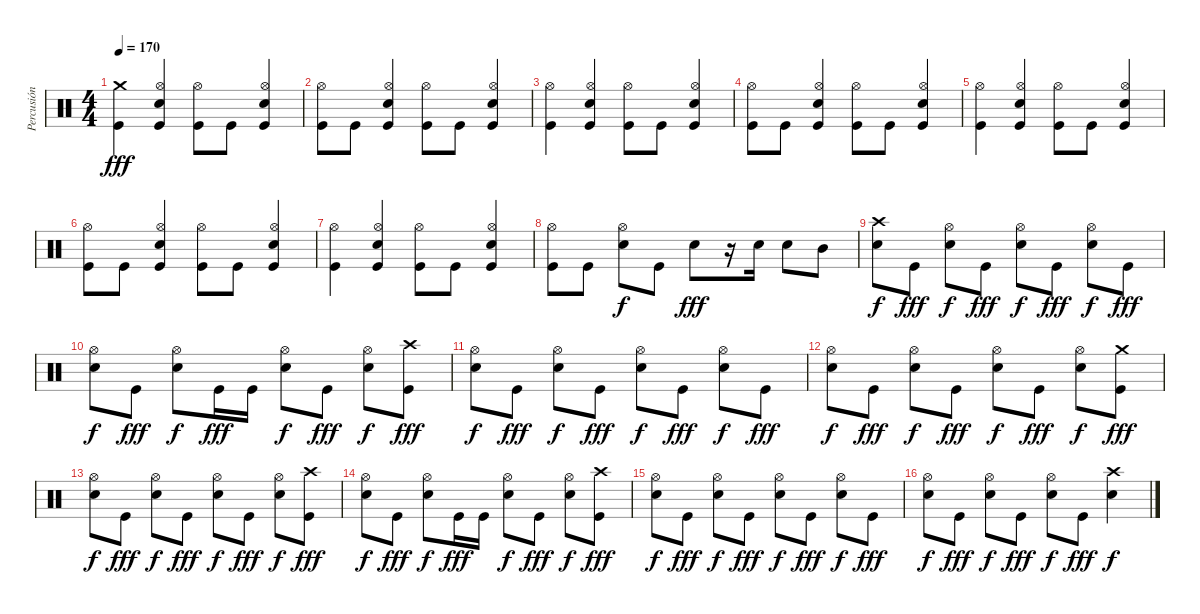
\track ("Percusión" "Percusión") {instrument percussion}
\staff {score}
\articulation defaults
\ts (4 4)
\tempo 170
\clef neutral
\ks c
("Crash medium (hit)" "Kick (hit)").4{dy fff} ("Hi-Hat (open)" "Electric Snare (hit)" "Kick (hit)").4 ("Hi-Hat (open)" "Kick (hit)").8 "Kick (hit)".8 ("Hi-Hat (open)" "Electric Snare (hit)" "Kick (hit)").4 |
("Hi-Hat (open)" "Kick (hit)").8 "Kick (hit)".8 ("Hi-Hat (open)" "Electric Snare (hit)" "Kick (hit)").4 ("Hi-Hat (open)" "Kick (hit)").8 "Kick (hit)".8 ("Hi-Hat (open)" "Electric Snare (hit)" "Kick (hit)").4 |
("Hi-Hat (open)" "Kick (hit)").4 ("Hi-Hat (open)" "Electric Snare (hit)" "Kick (hit)").4 ("Hi-Hat (open)" "Kick (hit)").8 "Kick (hit)".8 ("Hi-Hat (open)" "Electric Snare (hit)" "Kick (hit)").4 |
("Hi-Hat (open)" "Kick (hit)").8 "Kick (hit)".8 ("Hi-Hat (open)" "Electric Snare (hit)" "Kick (hit)").4 ("Hi-Hat (open)" "Kick (hit)").8 "Kick (hit)".8 ("Hi-Hat (open)" "Electric Snare (hit)" "Kick (hit)").4 |
("Hi-Hat (open)" "Kick (hit)").4 ("Hi-Hat (open)" "Electric Snare (hit)" "Kick (hit)").4 ("Hi-Hat (open)" "Kick (hit)").8 "Kick (hit)".8 ("Hi-Hat (open)" "Electric Snare (hit)" "Kick (hit)").4 |
("Hi-Hat (open)" "Kick (hit)").8 "Kick (hit)".8 ("Hi-Hat (open)" "Electric Snare (hit)" "Kick (hit)").4 ("Hi-Hat (open)" "Kick (hit)").8 "Kick (hit)".8 ("Hi-Hat (open)" "Electric Snare (hit)" "Kick (hit)").4 |
("Hi-Hat (open)" "Kick (hit)").4 ("Hi-Hat (open)" "Electric Snare (hit)" "Kick (hit)").4 ("Hi-Hat (open)" "Kick (hit)").8 "Kick (hit)".8 ("Hi-Hat (open)" "Electric Snare (hit)" "Kick (hit)").4 |
("Hi-Hat (open)" "Kick (hit)").8 "Kick (hit)".8 ("Hi-Hat (open)" "Electric Snare (hit)").8{dy f} "Kick (hit)".8 "Electric Snare (hit)".8{dy fff} r.16 "Electric Snare (hit)".16 "Electric Snare (hit)".8 "Mid Tom (hit)".8 |
("Crash high (hit)" "Electric Snare (hit)").8{dy f} "Kick (hit)".8{dy fff} ("Hi-Hat (open)" "Electric Snare (hit)").8{dy f} "Kick (hit)".8{dy fff} ("Hi-Hat (open)" "Electric Snare (hit)").8{dy f} "Kick (hit)".8{dy fff} ("Hi-Hat (open)" "Electric Snare (hit)").8{dy f} "Kick (hit)".8{dy fff} |
("Hi-Hat (open)" "Electric Snare (hit)").8{dy f} "Kick (hit)".8{dy fff} ("Hi-Hat (open)" "Electric Snare (hit)").8{dy f} "Kick (hit)".16{dy fff} "Kick (hit)".16 ("Hi-Hat (open)" "Electric Snare (hit)").8{dy f} "Kick (hit)".8{dy fff} ("Hi-Hat (open)" "Electric Snare (hit)").8{dy f} ("Crash high (hit)" "Kick (hit)").8{dy fff} |
("Hi-Hat (open)" "Electric Snare (hit)").8{dy f} "Kick (hit)".8{dy fff} ("Hi-Hat (open)" "Electric Snare (hit)").8{dy f} "Kick (hit)".8{dy fff} ("Hi-Hat (open)" "Electric Snare (hit)").8{dy f} "Kick (hit)".8{dy fff} ("Hi-Hat (open)" "Electric Snare (hit)").8{dy f} "Kick (hit)".8{dy fff} |
("Hi-Hat (open)" "Electric Snare (hit)").8{dy f} "Kick (hit)".8{dy fff} ("Hi-Hat (open)" "Electric Snare (hit)").8{dy f} "Kick (hit)".8{dy fff} ("Hi-Hat (open)" "Electric Snare (hit)").8{dy f} "Kick (hit)".8{dy fff} ("Hi-Hat (open)" "Electric Snare (hit)").8{dy f} ("Crash medium (hit)" "Kick (hit)").8{dy fff} |
("Hi-Hat (open)" "Electric Snare (hit)").8{dy f} "Kick (hit)".8{dy fff} ("Hi-Hat (open)" "Electric Snare (hit)").8{dy f} "Kick (hit)".8{dy fff} ("Hi-Hat (open)" "Electric Snare (hit)").8{dy f} "Kick (hit)".8{dy fff} ("Hi-Hat (open)" "Electric Snare (hit)").8{dy f} ("Crash high (hit)" "Kick (hit)").8{dy fff} |
("Hi-Hat (open)" "Electric Snare (hit)").8{dy f} "Kick (hit)".8{dy fff} ("Hi-Hat (open)" "Electric Snare (hit)").8{dy f} "Kick (hit)".16{dy fff} "Kick (hit)".16 ("Hi-Hat (open)" "Electric Snare (hit)").8{dy f} "Kick (hit)".8{dy fff} ("Hi-Hat (open)" "Electric Snare (hit)").8{dy f} ("Crash high (hit)" "Kick (hit)").8{dy fff} |
("Hi-Hat (open)" "Electric Snare (hit)").8{dy f} "Kick (hit)".8{dy fff} ("Hi-Hat (open)" "Electric Snare (hit)").8{dy f} "Kick (hit)".8{dy fff} ("Hi-Hat (open)" "Electric Snare (hit)").8{dy f} "Kick (hit)".8{dy fff} ("Hi-Hat (open)" "Electric Snare (hit)").8{dy f} "Kick (hit)".8{dy fff} |
("Hi-Hat (open)" "Electric Snare (hit)").8{dy f} "Kick (hit)".8{dy fff} ("Hi-Hat (open)" "Electric Snare (hit)").8{dy f} "Kick (hit)".8{dy fff} ("Hi-Hat (open)" "Electric Snare (hit)").8{dy f} "Kick (hit)".8{dy fff} ("Crash high (hit)" "Electric Snare (hit)").4{dy f}
